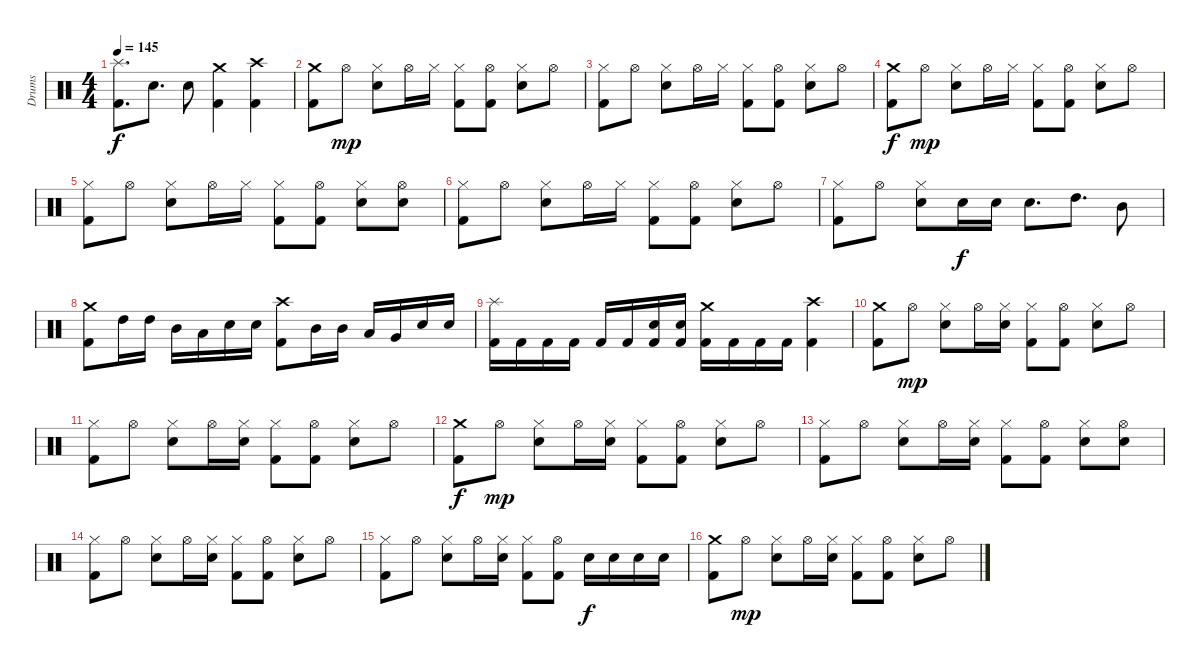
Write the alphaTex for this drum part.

\track ("Drums" "Drums") {instrument percussion}
\staff {score}
\articulation defaults
\ts (4 4)
\tempo 145
\clef neutral
\ks c
("Splash (hit)" "Kick (hit) 2").8{d dy f} "Snare (hit) 2".8{d} "Snare (hit) 2".8 ("Crash medium (hit)" "Kick (hit) 2").4 ("Crash high (hit)" "Kick (hit) 2").4 |
("Crash medium (hit)" "Kick (hit) 2").8 "Hi-Hat (open)".8{dy mp} ("Hi-Hat (closed)" "Snare (hit) 2").8 "Hi-Hat (open)".16 "Hi-Hat (closed)".16 ("Hi-Hat (closed)" "Kick (hit) 2").8 ("Hi-Hat (open)" "Kick (hit) 2").8 ("Hi-Hat (closed)" "Snare (hit) 2").8 "Hi-Hat (open)".8 |
("Hi-Hat (closed)" "Kick (hit) 2").8 "Hi-Hat (open)".8 ("Hi-Hat (closed)" "Snare (hit) 2").8 "Hi-Hat (open)".16 "Hi-Hat (closed)".16 ("Hi-Hat (closed)" "Kick (hit) 2").8 ("Hi-Hat (open)" "Kick (hit) 2").8 ("Hi-Hat (closed)" "Snare (hit) 2").8 "Hi-Hat (open)".8 |
("Crash medium (hit)" "Kick (hit) 2").8{dy f} "Hi-Hat (open)".8{dy mp} ("Hi-Hat (closed)" "Snare (hit) 2").8 "Hi-Hat (open)".16 "Hi-Hat (closed)".16 ("Hi-Hat (closed)" "Kick (hit) 2").8 ("Hi-Hat (open)" "Kick (hit) 2").8 ("Hi-Hat (closed)" "Snare (hit) 2").8 "Hi-Hat (open)".8 |
("Hi-Hat (closed)" "Kick (hit) 2").8 "Hi-Hat (open)".8 ("Hi-Hat (closed)" "Snare (hit) 2").8 "Hi-Hat (open)".16 "Hi-Hat (closed)".16 ("Hi-Hat (closed)" "Kick (hit) 2").8 ("Hi-Hat (open)" "Kick (hit) 2").8 ("Hi-Hat (closed)" "Snare (hit) 2").8 ("Hi-Hat (open)" "Snare (hit) 2").8 |
("Hi-Hat (closed)" "Kick (hit) 2").8 "Hi-Hat (open)".8 ("Hi-Hat (closed)" "Snare (hit) 2").8 "Hi-Hat (open)".16 "Hi-Hat (closed)".16 ("Hi-Hat (closed)" "Kick (hit) 2").8 ("Hi-Hat (open)" "Kick (hit) 2").8 ("Hi-Hat (closed)" "Snare (hit) 2").8 "Hi-Hat (open)".8 |
("Hi-Hat (closed)" "Kick (hit) 2").8 "Hi-Hat (open)".8 ("Hi-Hat (closed)" "Snare (hit) 2").8 "Snare (hit) 2".16{dy f} "Snare (hit) 2".16 "Snare (hit) 2".8{d} "High Tom (hit)".8{d} "Mid Tom (hit)".8 |
("Crash medium (hit)" "Kick (hit) 2").8 "High Tom (hit)".16 "High Tom (hit)".16 "Mid Tom (hit)".16 "Low Tom (hit)".16 "Snare (hit) 2".16 "Snare (hit) 2".16 ("Crash high (hit)" "Kick (hit) 2").8 "Mid Tom (hit)".16 "Mid Tom (hit)".16 "Low Tom (hit)".16 "Very Low Tom (hit)".16 "Snare (hit) 2".16 "Snare (hit) 2".16 |
("Splash (hit)" "Kick (hit) 2").16 "Kick (hit) 2".16 "Kick (hit) 2".16 "Kick (hit) 2".16 "Kick (hit) 2".16 "Kick (hit) 2".16 ("Snare (hit) 2" "Kick (hit) 2").16 ("Snare (hit) 2" "Kick (hit) 2").16 ("Crash medium (hit)" "Kick (hit) 2").16 "Kick (hit) 2".16 "Kick (hit) 2".16 "Kick (hit) 2".16 ("Crash high (hit)" "Kick (hit) 2").4 |
("Crash medium (hit)" "Kick (hit) 2").8 "Hi-Hat (open)".8{dy mp} ("Hi-Hat (closed)" "Snare (hit) 2").8 "Hi-Hat (open)".16 ("Hi-Hat (closed)" "Snare (hit) 2").16 ("Hi-Hat (closed)" "Kick (hit) 2").8 ("Hi-Hat (open)" "Kick (hit) 2").8 ("Hi-Hat (closed)" "Snare (hit) 2").8 "Hi-Hat (open)".8 |
("Hi-Hat (closed)" "Kick (hit) 2").8 "Hi-Hat (open)".8 ("Hi-Hat (closed)" "Snare (hit) 2").8 "Hi-Hat (open)".16 ("Hi-Hat (closed)" "Snare (hit) 2").16 ("Hi-Hat (closed)" "Kick (hit) 2").8 ("Hi-Hat (open)" "Kick (hit) 2").8 ("Hi-Hat (closed)" "Snare (hit) 2").8 "Hi-Hat (open)".8 |
("Crash medium (hit)" "Kick (hit) 2").8{dy f} "Hi-Hat (open)".8{dy mp} ("Hi-Hat (closed)" "Snare (hit) 2").8 "Hi-Hat (open)".16 ("Hi-Hat (closed)" "Snare (hit) 2").16 ("Hi-Hat (closed)" "Kick (hit) 2").8 ("Hi-Hat (open)" "Kick (hit) 2").8 ("Hi-Hat (closed)" "Snare (hit) 2").8 "Hi-Hat (open)".8 |
("Hi-Hat (closed)" "Kick (hit) 2").8 "Hi-Hat (open)".8 ("Hi-Hat (closed)" "Snare (hit) 2").8 "Hi-Hat (open)".16 ("Hi-Hat (closed)" "Snare (hit) 2").16 ("Hi-Hat (closed)" "Kick (hit) 2").8 ("Hi-Hat (open)" "Kick (hit) 2").8 ("Hi-Hat (closed)" "Snare (hit) 2").8 ("Hi-Hat (open)" "Snare (hit) 2").8 |
("Hi-Hat (closed)" "Kick (hit) 2").8 "Hi-Hat (open)".8 ("Hi-Hat (closed)" "Snare (hit) 2").8 "Hi-Hat (open)".16 ("Hi-Hat (closed)" "Snare (hit) 2").16 ("Hi-Hat (closed)" "Kick (hit) 2").8 ("Hi-Hat (open)" "Kick (hit) 2").8 ("Hi-Hat (closed)" "Snare (hit) 2").8 "Hi-Hat (open)".8 |
("Hi-Hat (closed)" "Kick (hit) 2").8 "Hi-Hat (open)".8 ("Hi-Hat (closed)" "Snare (hit) 2").8 "Hi-Hat (open)".16 ("Hi-Hat (closed)" "Snare (hit) 2").16 ("Hi-Hat (closed)" "Kick (hit) 2").8 ("Hi-Hat (open)" "Kick (hit) 2").8 "Snare (hit) 2".16{dy f} "Snare (hit) 2".16 "Snare (hit) 2".16 "Snare (hit) 2".16 |
("Crash medium (hit)" "Kick (hit) 2").8 "Hi-Hat (open)".8{dy mp} ("Hi-Hat (closed)" "Snare (hit) 2").8 "Hi-Hat (open)".16 ("Hi-Hat (closed)" "Snare (hit) 2").16 ("Hi-Hat (closed)" "Kick (hit) 2").8 ("Hi-Hat (open)" "Kick (hit) 2").8 ("Hi-Hat (closed)" "Snare (hit) 2").8 "Hi-Hat (open)".8
